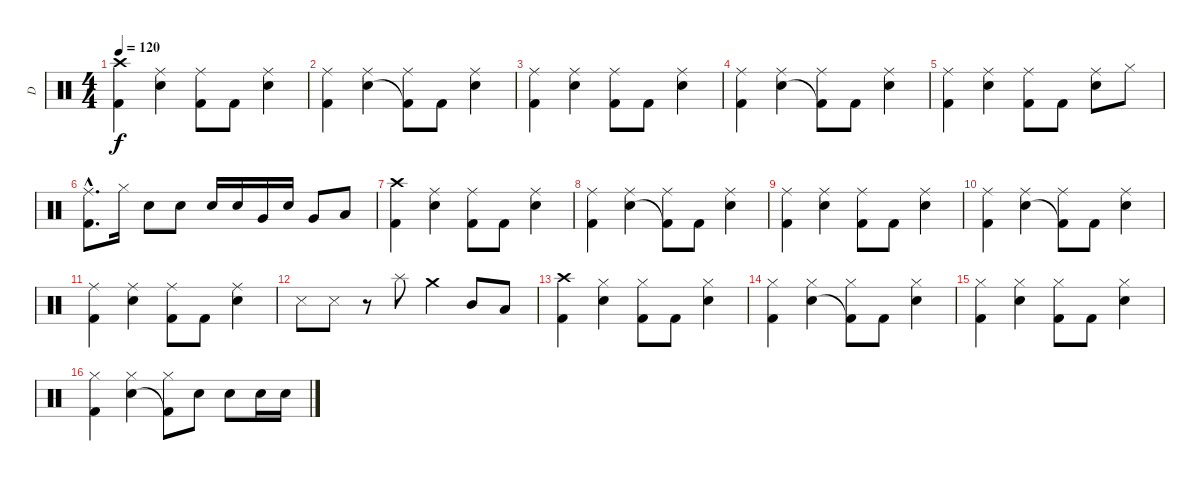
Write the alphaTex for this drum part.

\track ("D" "D") {instrument percussion}
\staff {score}
\articulation defaults
\ts (4 4)
\tempo 120
\clef neutral
\ks c
("Crash high (hit)" "Kick (hit) 2").4{dy f} ("Ride (middle)" "Snare (hit) 2").4 ("Ride (middle)" "Kick (hit) 2").8 "Kick (hit) 2".8 ("Ride (middle)" "Snare (hit) 2").4 |
("Ride (middle)" "Kick (hit) 2").4 ("Ride (middle)" "Snare (hit) 2").4 ("Ride (middle)" "Kick (hit) 2"{t}).8 "Kick (hit) 2".8 ("Ride (middle)" "Snare (hit) 2").4 |
("Ride (middle)" "Kick (hit) 2").4 ("Ride (middle)" "Snare (hit) 2").4 ("Ride (middle)" "Kick (hit) 2").8 "Kick (hit) 2".8 ("Ride (middle)" "Snare (hit) 2").4 |
("Ride (middle)" "Kick (hit) 2").4 ("Ride (middle)" "Snare (hit) 2").4 ("Ride (middle)" "Kick (hit) 2"{t}).8 "Kick (hit) 2".8 ("Ride (middle)" "Snare (hit) 2").4 |
("Ride (middle)" "Kick (hit) 2").4 ("Ride (middle)" "Snare (hit) 2").4 ("Ride (middle)" "Kick (hit) 2").8 "Kick (hit) 2".8 ("Ride (middle)" "Snare (hit) 2").8 "Hi-Hat (closed)".8 |
("Ride (middle)"{hac} "Kick (hit) 2"{hac}).8{d} "Hi-Hat (closed)".16 "Snare (hit) 2".8 "Snare (hit) 2".8 "Snare (hit) 2".16 "Snare (hit) 2".16 "Very Low Tom (hit)".16 "Snare (hit) 2".16 "Very Low Tom (hit)".8 "Low Floor Tom (hit)".8 |
("Crash high (hit)" "Kick (hit) 2").4 ("Ride (middle)" "Snare (hit) 2").4 ("Ride (middle)" "Kick (hit) 2").8 "Kick (hit) 2".8 ("Ride (middle)" "Snare (hit) 2").4 |
("Ride (middle)" "Kick (hit) 2").4 ("Ride (middle)" "Snare (hit) 2").4 ("Ride (middle)" "Kick (hit) 2"{t}).8 "Kick (hit) 2".8 ("Ride (middle)" "Snare (hit) 2").4 |
("Ride (middle)" "Kick (hit) 2").4 ("Ride (middle)" "Snare (hit) 2").4 ("Ride (middle)" "Kick (hit) 2").8 "Kick (hit) 2".8 ("Ride (middle)" "Snare (hit) 2").4 |
("Ride (middle)" "Kick (hit) 2").4 ("Ride (middle)" "Snare (hit) 2").4 ("Ride (middle)" "Kick (hit) 2"{t}).8 "Kick (hit) 2".8 ("Ride (middle)" "Snare (hit) 2").4 |
("Ride (middle)" "Kick (hit) 2").4 ("Ride (middle)" "Snare (hit) 2").4 ("Ride (middle)" "Kick (hit) 2").8 "Kick (hit) 2".8 ("Ride (middle)" "Snare (hit) 2").4 |
"Snare (side stick) 3".8 "Snare (side stick) 3".8 r.8 "Splash (hit)".8 "Crash medium (hit)".4 "Mid Tom (hit)".8 "Low Tom (hit)".8 |
("Crash high (hit)" "Kick (hit) 2").4 ("Hi-Hat (closed)" "Snare (hit) 2").4 ("Hi-Hat (closed)" "Kick (hit) 2").8 "Kick (hit) 2".8 ("Hi-Hat (closed)" "Snare (hit) 2").4 |
("Hi-Hat (closed)" "Kick (hit) 2").4 ("Hi-Hat (closed)" "Snare (hit) 2").4 ("Hi-Hat (closed)" "Kick (hit) 2"{t}).8 "Kick (hit) 2".8 ("Hi-Hat (closed)" "Snare (hit) 2").4 |
("Hi-Hat (closed)" "Kick (hit) 2").4 ("Hi-Hat (closed)" "Snare (hit) 2").4 ("Hi-Hat (closed)" "Kick (hit) 2").8 "Kick (hit) 2".8 ("Hi-Hat (closed)" "Snare (hit) 2").4 |
("Hi-Hat (closed)" "Kick (hit) 2").4 ("Hi-Hat (closed)" "Snare (hit) 2").4 ("Hi-Hat (closed)" "Kick (hit) 2"{t}).8 "Snare (hit) 2".8 "Snare (hit) 2".8 "Snare (hit) 2".16 "Snare (hit) 2".16
